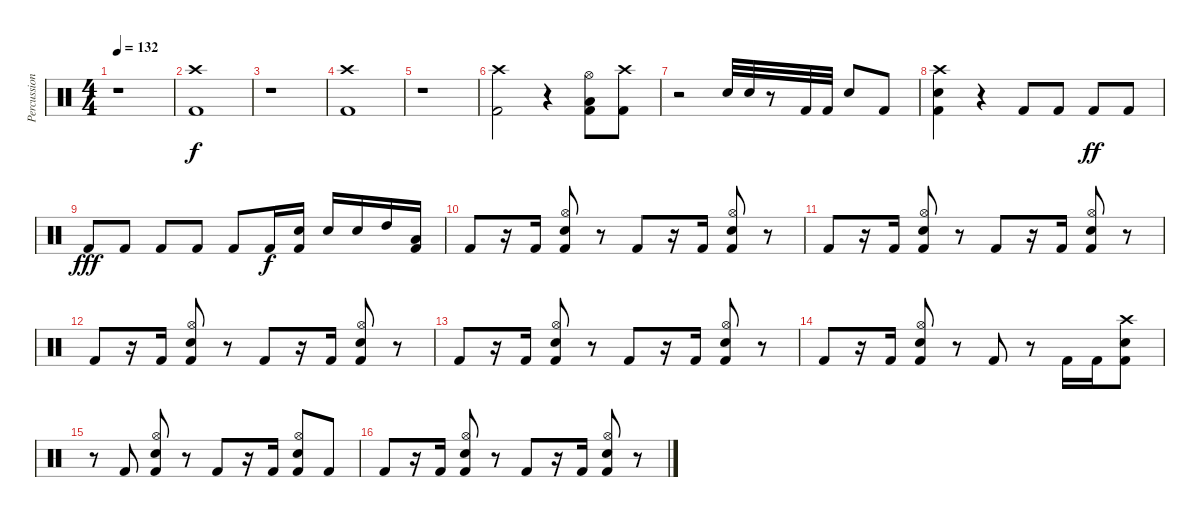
\track ("Percussion" "Percussion") {instrument percussion}
\staff {score}
\articulation defaults
\ts (4 4)
\tempo 132
\clef neutral
\ks c
r.1{dy f} |
("Crash high (hit)" "Kick (hit) 2").1 |
r.1 |
("Crash high (hit)" "Kick (hit) 2").1 |
r.1 |
("Crash high (hit)" "Kick (hit) 2").2 r.4 ("Hi-Hat (open)" "Low Floor Tom (hit)" "Kick (hit) 2").8 ("Crash high (hit)" "Kick (hit) 2").8 |
r.2 "Electric Snare (hit)".32 "Electric Snare (hit)".32 r.8 "Kick (hit) 2".32 "Kick (hit) 2".32 "Electric Snare (hit)".8 "Kick (hit) 2".8 |
("Crash high (hit)" "Snare (hit) 2" "Kick (hit) 2").4 r.4 "Kick (hit) 2".8 "Kick (hit) 2".8 "Kick (hit) 2".8{dy ff} "Kick (hit) 2".8 |
"Kick (hit) 2".8{dy fff} "Kick (hit) 2".8 "Kick (hit) 2".8 "Kick (hit) 2".8 "Kick (hit) 2".8 "Kick (hit) 2".16{dy f} ("Electric Snare (hit)" "Kick (hit) 2").16 "Snare (hit) 2".16 "Snare (hit) 2".16 "High Tom (hit)".16 ("Low Floor Tom (hit)" "Kick (hit) 2").16 |
"Kick (hit) 2".8 r.16 "Kick (hit) 2".16 ("Hi-Hat (open)" "Snare (hit) 2" "Kick (hit) 2").8 r.8 "Kick (hit) 2".8 r.16 "Kick (hit) 2".16 ("Hi-Hat (open)" "Snare (hit) 2" "Kick (hit) 2").8 r.8 |
"Kick (hit) 2".8 r.16 "Kick (hit) 2".16 ("Hi-Hat (open)" "Snare (hit) 2" "Kick (hit) 2").8 r.8 "Kick (hit) 2".8 r.16 "Kick (hit) 2".16 ("Hi-Hat (open)" "Snare (hit) 2" "Kick (hit) 2").8 r.8 |
"Kick (hit) 2".8 r.16 "Kick (hit) 2".16 ("Hi-Hat (open)" "Snare (hit) 2" "Kick (hit) 2").8 r.8 "Kick (hit) 2".8 r.16 "Kick (hit) 2".16 ("Hi-Hat (open)" "Snare (hit) 2" "Kick (hit) 2").8 r.8 |
"Kick (hit) 2".8 r.16 "Kick (hit) 2".16 ("Hi-Hat (open)" "Snare (hit) 2" "Kick (hit) 2").8 r.8 "Kick (hit) 2".8 r.16 "Kick (hit) 2".16 ("Hi-Hat (open)" "Snare (hit) 2" "Kick (hit) 2").8 r.8 |
"Kick (hit) 2".8 r.16 "Kick (hit) 2".16 ("Hi-Hat (open)" "Snare (hit) 2" "Kick (hit) 2").8 r.8 "Kick (hit) 2".8 r.8 "Kick (hit) 2".16 "Kick (hit) 2".16 ("Crash high (hit)" "Snare (hit) 2" "Kick (hit) 2").8 |
r.8 "Kick (hit) 2".8 ("Hi-Hat (open)" "Snare (hit) 2" "Kick (hit) 2").8 r.8 "Kick (hit) 2".8 r.16 "Kick (hit) 2".16 ("Hi-Hat (open)" "Snare (hit) 2" "Kick (hit) 2").8 "Kick (hit) 2".8 |
"Kick (hit) 2".8 r.16 "Kick (hit) 2".16 ("Hi-Hat (open)" "Snare (hit) 2" "Kick (hit) 2").8 r.8 "Kick (hit) 2".8 r.16 "Kick (hit) 2".16 ("Hi-Hat (open)" "Snare (hit) 2" "Kick (hit) 2").8 r.8
